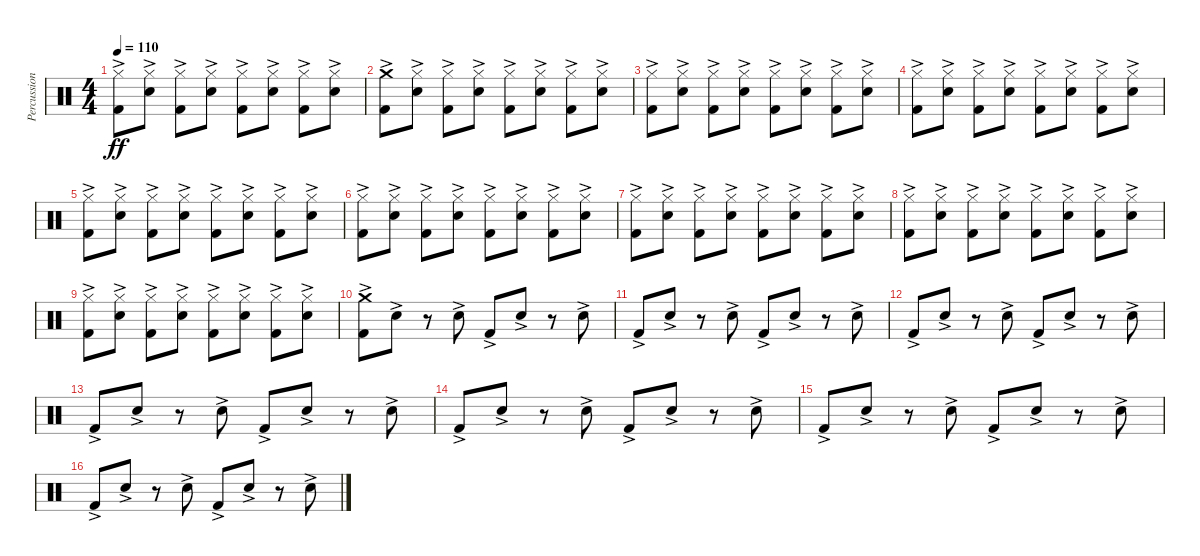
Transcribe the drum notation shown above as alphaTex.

\track ("Percussion" "Percussion") {instrument percussion}
\staff {score}
\articulation defaults
\ts (4 4)
\tempo 110
\clef neutral
\ks c
("Hi-Hat (closed)"{ac} "Kick (hit) 2"{ac}).8{dy ff} ("Hi-Hat (closed)"{ac} "Snare (hit) 2"{ac}).8 ("Hi-Hat (closed)"{ac} "Kick (hit) 2"{ac}).8 ("Hi-Hat (closed)"{ac} "Snare (hit) 2"{ac}).8 ("Hi-Hat (closed)"{ac} "Kick (hit) 2"{ac}).8 ("Hi-Hat (closed)"{ac} "Snare (hit) 2"{ac}).8 ("Hi-Hat (closed)"{ac} "Kick (hit) 2"{ac}).8 ("Hi-Hat (closed)"{ac} "Snare (hit) 2"{ac}).8 |
("Crash medium (hit)"{ac} "Kick (hit) 2"{ac}).8 ("Hi-Hat (closed)"{ac} "Snare (hit) 2"{ac}).8 ("Hi-Hat (closed)"{ac} "Kick (hit) 2"{ac}).8 ("Hi-Hat (closed)"{ac} "Snare (hit) 2"{ac}).8 ("Hi-Hat (closed)"{ac} "Kick (hit) 2"{ac}).8 ("Hi-Hat (closed)"{ac} "Snare (hit) 2"{ac}).8 ("Hi-Hat (closed)"{ac} "Kick (hit) 2"{ac}).8 ("Hi-Hat (closed)"{ac} "Snare (hit) 2"{ac}).8 |
("Hi-Hat (closed)"{ac} "Kick (hit) 2"{ac}).8 ("Hi-Hat (closed)"{ac} "Snare (hit) 2"{ac}).8 ("Hi-Hat (closed)"{ac} "Kick (hit) 2"{ac}).8 ("Hi-Hat (closed)"{ac} "Snare (hit) 2"{ac}).8 ("Hi-Hat (closed)"{ac} "Kick (hit) 2"{ac}).8 ("Hi-Hat (closed)"{ac} "Snare (hit) 2"{ac}).8 ("Hi-Hat (closed)"{ac} "Kick (hit) 2"{ac}).8 ("Hi-Hat (closed)"{ac} "Snare (hit) 2"{ac}).8 |
("Hi-Hat (closed)"{ac} "Kick (hit) 2"{ac}).8 ("Hi-Hat (closed)"{ac} "Snare (hit) 2"{ac}).8 ("Hi-Hat (closed)"{ac} "Kick (hit) 2"{ac}).8 ("Hi-Hat (closed)"{ac} "Snare (hit) 2"{ac}).8 ("Hi-Hat (closed)"{ac} "Kick (hit) 2"{ac}).8 ("Hi-Hat (closed)"{ac} "Snare (hit) 2"{ac}).8 ("Hi-Hat (closed)"{ac} "Kick (hit) 2"{ac}).8 ("Hi-Hat (closed)"{ac} "Snare (hit) 2"{ac}).8 |
("Hi-Hat (closed)"{ac} "Kick (hit) 2"{ac}).8 ("Hi-Hat (closed)"{ac} "Snare (hit) 2"{ac}).8 ("Hi-Hat (closed)"{ac} "Kick (hit) 2"{ac}).8 ("Hi-Hat (closed)"{ac} "Snare (hit) 2"{ac}).8 ("Hi-Hat (closed)"{ac} "Kick (hit) 2"{ac}).8 ("Hi-Hat (closed)"{ac} "Snare (hit) 2"{ac}).8 ("Hi-Hat (closed)"{ac} "Kick (hit) 2"{ac}).8 ("Hi-Hat (closed)"{ac} "Snare (hit) 2"{ac}).8 |
("Hi-Hat (closed)"{ac} "Kick (hit) 2"{ac}).8 ("Hi-Hat (closed)"{ac} "Snare (hit) 2"{ac}).8 ("Hi-Hat (closed)"{ac} "Kick (hit) 2"{ac}).8 ("Hi-Hat (closed)"{ac} "Snare (hit) 2"{ac}).8 ("Hi-Hat (closed)"{ac} "Kick (hit) 2"{ac}).8 ("Hi-Hat (closed)"{ac} "Snare (hit) 2"{ac}).8 ("Hi-Hat (closed)"{ac} "Kick (hit) 2"{ac}).8 ("Hi-Hat (closed)"{ac} "Snare (hit) 2"{ac}).8 |
("Hi-Hat (closed)"{ac} "Kick (hit) 2"{ac}).8 ("Hi-Hat (closed)"{ac} "Snare (hit) 2"{ac}).8 ("Hi-Hat (closed)"{ac} "Kick (hit) 2"{ac}).8 ("Hi-Hat (closed)"{ac} "Snare (hit) 2"{ac}).8 ("Hi-Hat (closed)"{ac} "Kick (hit) 2"{ac}).8 ("Hi-Hat (closed)"{ac} "Snare (hit) 2"{ac}).8 ("Hi-Hat (closed)"{ac} "Kick (hit) 2"{ac}).8 ("Hi-Hat (closed)"{ac} "Snare (hit) 2"{ac}).8 |
("Hi-Hat (closed)"{ac} "Kick (hit) 2"{ac}).8 ("Hi-Hat (closed)"{ac} "Snare (hit) 2"{ac}).8 ("Hi-Hat (closed)"{ac} "Kick (hit) 2"{ac}).8 ("Hi-Hat (closed)"{ac} "Snare (hit) 2"{ac}).8 ("Hi-Hat (closed)"{ac} "Kick (hit) 2"{ac}).8 ("Hi-Hat (closed)"{ac} "Snare (hit) 2"{ac}).8 ("Hi-Hat (closed)"{ac} "Kick (hit) 2"{ac}).8 ("Hi-Hat (closed)"{ac} "Snare (hit) 2"{ac}).8 |
("Hi-Hat (closed)"{ac} "Kick (hit) 2"{ac}).8 ("Hi-Hat (closed)"{ac} "Snare (hit) 2"{ac}).8 ("Hi-Hat (closed)"{ac} "Kick (hit) 2"{ac}).8 ("Hi-Hat (closed)"{ac} "Snare (hit) 2"{ac}).8 ("Hi-Hat (closed)"{ac} "Kick (hit) 2"{ac}).8 ("Hi-Hat (closed)"{ac} "Snare (hit) 2"{ac}).8 ("Hi-Hat (closed)"{ac} "Kick (hit) 2"{ac}).8 ("Hi-Hat (closed)"{ac} "Snare (hit) 2"{ac}).8 |
("Crash medium (hit)"{ac} "Kick (hit) 2"{ac}).8 "Snare (hit) 2"{ac}.8 r.8 "Snare (hit) 2"{ac}.8 "Kick (hit) 2"{ac}.8 "Snare (hit) 2"{ac}.8 r.8 "Snare (hit) 2"{ac}.8 |
"Kick (hit) 2"{ac}.8 "Snare (hit) 2"{ac}.8 r.8 "Snare (hit) 2"{ac}.8 "Kick (hit) 2"{ac}.8 "Snare (hit) 2"{ac}.8 r.8 "Snare (hit) 2"{ac}.8 |
"Kick (hit) 2"{ac}.8 "Snare (hit) 2"{ac}.8 r.8 "Snare (hit) 2"{ac}.8 "Kick (hit) 2"{ac}.8 "Snare (hit) 2"{ac}.8 r.8 "Snare (hit) 2"{ac}.8 |
"Kick (hit) 2"{ac}.8 "Snare (hit) 2"{ac}.8 r.8 "Snare (hit) 2"{ac}.8 "Kick (hit) 2"{ac}.8 "Snare (hit) 2"{ac}.8 r.8 "Snare (hit) 2"{ac}.8 |
"Kick (hit) 2"{ac}.8 "Snare (hit) 2"{ac}.8 r.8 "Snare (hit) 2"{ac}.8 "Kick (hit) 2"{ac}.8 "Snare (hit) 2"{ac}.8 r.8 "Snare (hit) 2"{ac}.8 |
"Kick (hit) 2"{ac}.8 "Snare (hit) 2"{ac}.8 r.8 "Snare (hit) 2"{ac}.8 "Kick (hit) 2"{ac}.8 "Snare (hit) 2"{ac}.8 r.8 "Snare (hit) 2"{ac}.8 |
"Kick (hit) 2"{ac}.8 "Snare (hit) 2"{ac}.8 r.8 "Snare (hit) 2"{ac}.8 "Kick (hit) 2"{ac}.8 "Snare (hit) 2"{ac}.8 r.8 "Snare (hit) 2"{ac}.8
